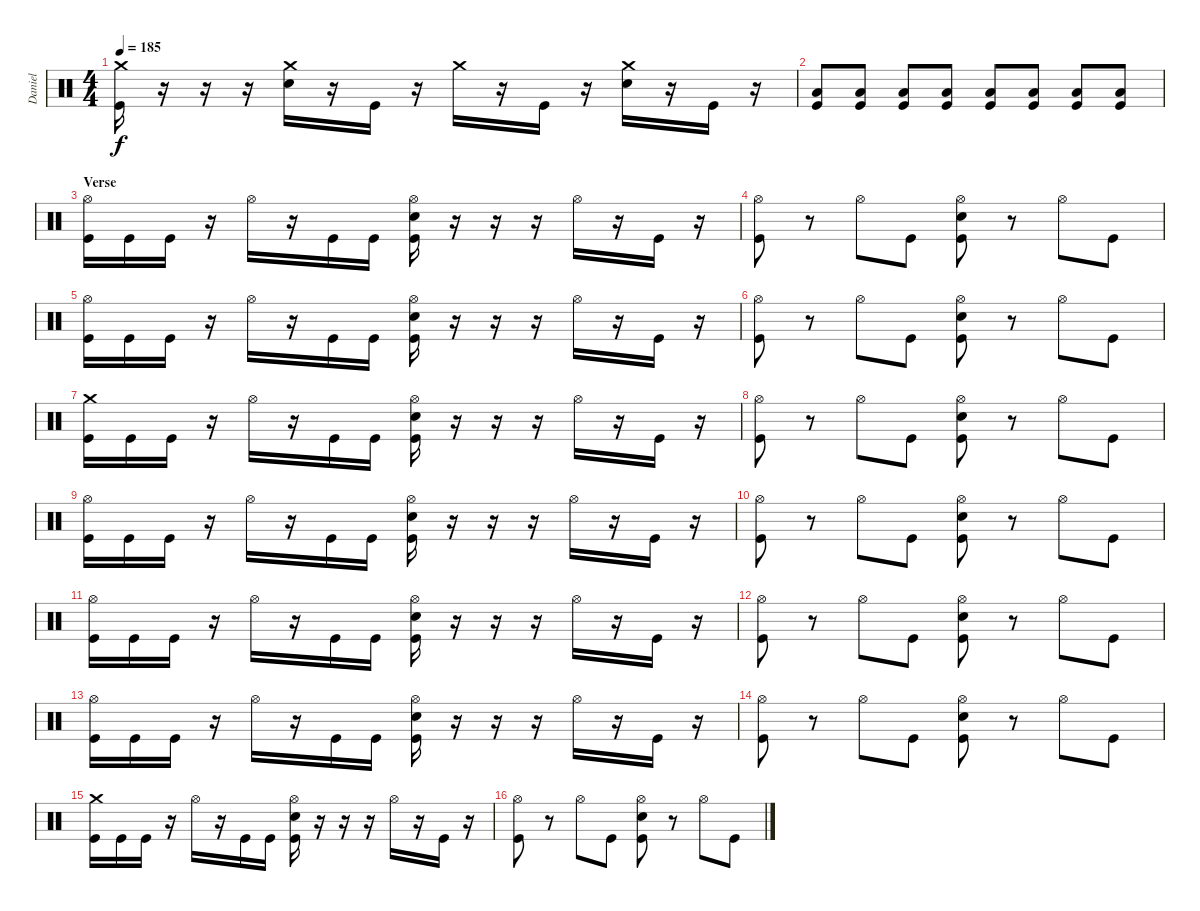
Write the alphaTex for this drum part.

\track ("Daniel" "Daniel") {instrument percussion}
\staff {score}
\articulation defaults
\ts (4 4)
\tempo 185
\clef neutral
\ks c
("Crash medium (hit)"{t} "Kick (hit)").16{dy f} r.16 r.16 r.16 ("Crash medium (hit)" "Snare (hit) 2").16 r.16 "Kick (hit)".16 r.16 "Crash medium (hit)".16 r.16 "Kick (hit)".16 r.16 ("Crash medium (hit)" "Snare (hit) 2").16 r.16 "Kick (hit)".16 r.16 |
("Low Floor Tom (hit)" "Kick (hit)").8 ("Low Floor Tom (hit)" "Kick (hit)").8 ("Low Floor Tom (hit)" "Kick (hit)").8 ("Low Floor Tom (hit)" "Kick (hit)").8 ("Low Floor Tom (hit)" "Kick (hit)").8 ("Low Floor Tom (hit)" "Kick (hit)").8 ("Low Floor Tom (hit)" "Kick (hit)").8 ("Low Floor Tom (hit)" "Kick (hit)").8 |
\section ("" "Verse")
("Hi-Hat (open)" "Kick (hit)").16 "Kick (hit)".16 "Kick (hit)".16 r.16 "Hi-Hat (open)".16 r.16 "Kick (hit)".16 "Kick (hit)".16 ("Hi-Hat (open)" "Snare (hit) 2" "Kick (hit)").16 r.16 r.16 r.16 "Hi-Hat (open)".16 r.16 "Kick (hit)".16 r.16 |
("Hi-Hat (open)" "Kick (hit)").8 r.8 "Hi-Hat (open)".8 "Kick (hit)".8 ("Hi-Hat (open)" "Snare (hit) 2" "Kick (hit)").8 r.8 "Hi-Hat (open)".8 "Kick (hit)".8 |
("Hi-Hat (open)" "Kick (hit)").16 "Kick (hit)".16 "Kick (hit)".16 r.16 "Hi-Hat (open)".16 r.16 "Kick (hit)".16 "Kick (hit)".16 ("Hi-Hat (open)" "Snare (hit) 2" "Kick (hit)").16 r.16 r.16 r.16 "Hi-Hat (open)".16 r.16 "Kick (hit)".16 r.16 |
("Hi-Hat (open)" "Kick (hit)").8 r.8 "Hi-Hat (open)".8 "Kick (hit)".8 ("Hi-Hat (open)" "Snare (hit) 2" "Kick (hit)").8 r.8 "Hi-Hat (open)".8 "Kick (hit)".8 |
("Crash medium (hit)" "Kick (hit)").16 "Kick (hit)".16 "Kick (hit)".16 r.16 "Hi-Hat (open)".16 r.16 "Kick (hit)".16 "Kick (hit)".16 ("Hi-Hat (open)" "Snare (hit) 2" "Kick (hit)").16 r.16 r.16 r.16 "Hi-Hat (open)".16 r.16 "Kick (hit)".16 r.16 |
("Hi-Hat (open)" "Kick (hit)").8 r.8 "Hi-Hat (open)".8 "Kick (hit)".8 ("Hi-Hat (open)" "Snare (hit) 2" "Kick (hit)").8 r.8 "Hi-Hat (open)".8 "Kick (hit)".8 |
("Hi-Hat (open)" "Kick (hit)").16 "Kick (hit)".16 "Kick (hit)".16 r.16 "Hi-Hat (open)".16 r.16 "Kick (hit)".16 "Kick (hit)".16 ("Hi-Hat (open)" "Snare (hit) 2" "Kick (hit)").16 r.16 r.16 r.16 "Hi-Hat (open)".16 r.16 "Kick (hit)".16 r.16 |
("Hi-Hat (open)" "Kick (hit)").8 r.8 "Hi-Hat (open)".8 "Kick (hit)".8 ("Hi-Hat (open)" "Snare (hit) 2" "Kick (hit)").8 r.8 "Hi-Hat (open)".8 "Kick (hit)".8 |
("Hi-Hat (open)" "Kick (hit)").16 "Kick (hit)".16 "Kick (hit)".16 r.16 "Hi-Hat (open)".16 r.16 "Kick (hit)".16 "Kick (hit)".16 ("Hi-Hat (open)" "Snare (hit) 2" "Kick (hit)").16 r.16 r.16 r.16 "Hi-Hat (open)".16 r.16 "Kick (hit)".16 r.16 |
("Hi-Hat (open)" "Kick (hit)").8 r.8 "Hi-Hat (open)".8 "Kick (hit)".8 ("Hi-Hat (open)" "Snare (hit) 2" "Kick (hit)").8 r.8 "Hi-Hat (open)".8 "Kick (hit)".8 |
("Hi-Hat (open)" "Kick (hit)").16 "Kick (hit)".16 "Kick (hit)".16 r.16 "Hi-Hat (open)".16 r.16 "Kick (hit)".16 "Kick (hit)".16 ("Hi-Hat (open)" "Snare (hit) 2" "Kick (hit)").16 r.16 r.16 r.16 "Hi-Hat (open)".16 r.16 "Kick (hit)".16 r.16 |
("Hi-Hat (open)" "Kick (hit)").8 r.8 "Hi-Hat (open)".8 "Kick (hit)".8 ("Hi-Hat (open)" "Snare (hit) 2" "Kick (hit)").8 r.8 "Hi-Hat (open)".8 "Kick (hit)".8 |
("Crash medium (hit)" "Kick (hit)").16 "Kick (hit)".16 "Kick (hit)".16 r.16 "Hi-Hat (open)".16 r.16 "Kick (hit)".16 "Kick (hit)".16 ("Hi-Hat (open)" "Snare (hit) 2" "Kick (hit)").16 r.16 r.16 r.16 "Hi-Hat (open)".16 r.16 "Kick (hit)".16 r.16 |
("Hi-Hat (open)" "Kick (hit)").8 r.8 "Hi-Hat (open)".8 "Kick (hit)".8 ("Hi-Hat (open)" "Snare (hit) 2" "Kick (hit)").8 r.8 "Hi-Hat (open)".8 "Kick (hit)".8
